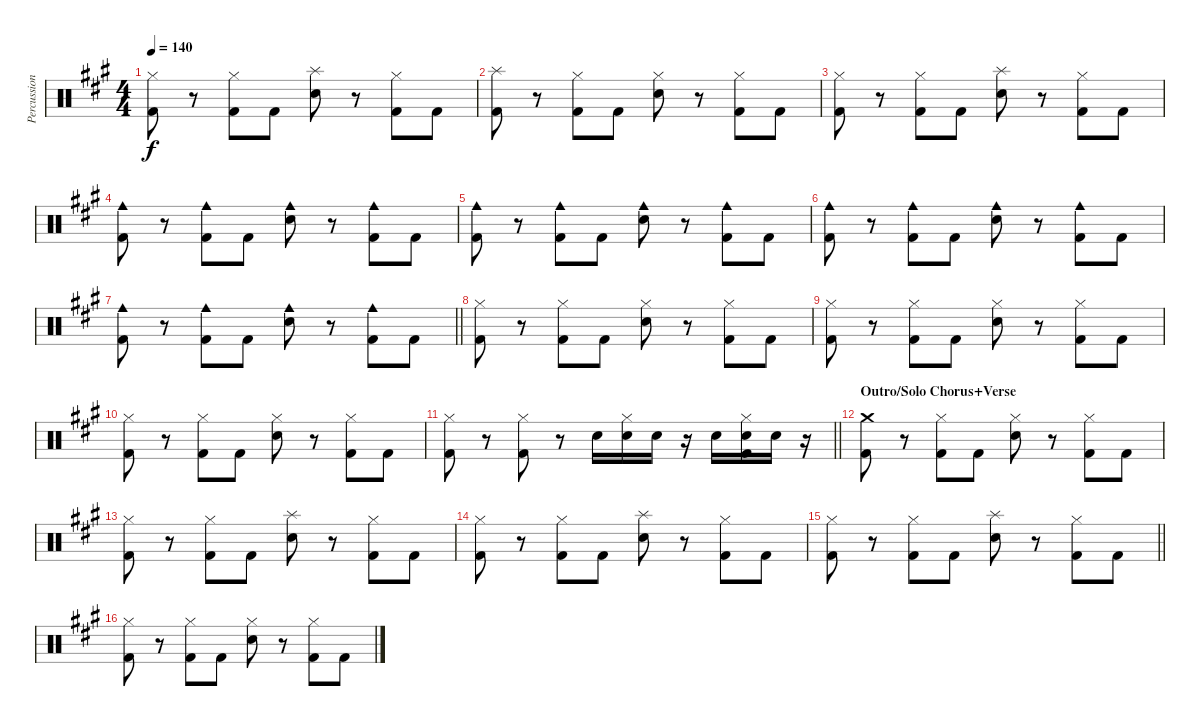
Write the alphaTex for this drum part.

\track ("Percussion" "Percussion") {instrument percussion}
\staff {score}
\articulation defaults
\ts (4 4)
\tempo 140
\clef neutral
\ks a
("Hi-Hat (closed)" "Kick (hit) 2").8{dy f} r.8 ("Hi-Hat (closed)" "Kick (hit) 2").8 "Kick (hit) 2".8 ("Splash (hit)" "Snare (hit) 2").8 r.8 ("Hi-Hat (closed)" "Kick (hit) 2").8 "Kick (hit) 2".8 |
("Splash (hit)" "Kick (hit) 2").8 r.8 ("Hi-Hat (closed)" "Kick (hit) 2").8 "Kick (hit) 2".8 ("Hi-Hat (closed)" "Snare (hit) 2").8 r.8 ("Hi-Hat (closed)" "Kick (hit) 2").8 "Kick (hit) 2".8 |
("Hi-Hat (closed)" "Kick (hit) 2").8 r.8 ("Hi-Hat (closed)" "Kick (hit) 2").8 "Kick (hit) 2".8 ("Splash (hit)" "Snare (hit) 2").8 r.8 ("Hi-Hat (closed)" "Kick (hit) 2").8 "Kick (hit) 2".8 |
("Cowbell medium (hit)" "Kick (hit) 2").8 r.8 ("Cowbell medium (hit)" "Kick (hit) 2").8 "Kick (hit) 2".8 ("Cowbell medium (hit)" "Snare (hit) 2").8 r.8 ("Cowbell medium (hit)" "Kick (hit) 2").8 "Kick (hit) 2".8 |
("Cowbell medium (hit)" "Kick (hit) 2").8 r.8 ("Cowbell medium (hit)" "Kick (hit) 2").8 "Kick (hit) 2".8 ("Cowbell medium (hit)" "Snare (hit) 2").8 r.8 ("Cowbell medium (hit)" "Kick (hit) 2").8 "Kick (hit) 2".8 |
("Cowbell medium (hit)" "Kick (hit) 2").8 r.8 ("Cowbell medium (hit)" "Kick (hit) 2").8 "Kick (hit) 2".8 ("Cowbell medium (hit)" "Snare (hit) 2").8 r.8 ("Cowbell medium (hit)" "Kick (hit) 2").8 "Kick (hit) 2".8 |
\barLineRight lightlight
("Cowbell medium (hit)" "Kick (hit) 2").8 r.8 ("Cowbell medium (hit)" "Kick (hit) 2").8 "Kick (hit) 2".8 ("Cowbell medium (hit)" "Snare (hit) 2").8 r.8 ("Cowbell medium (hit)" "Kick (hit) 2").8 "Kick (hit) 2".8 |
("Hi-Hat (closed)" "Kick (hit) 2").8 r.8 ("Hi-Hat (closed)" "Kick (hit) 2").8 "Kick (hit) 2".8 ("Hi-Hat (closed)" "Snare (hit) 2").8 r.8 ("Hi-Hat (closed)" "Kick (hit) 2").8 "Kick (hit) 2".8 |
("Hi-Hat (closed)" "Kick (hit) 2").8 r.8 ("Hi-Hat (closed)" "Kick (hit) 2").8 "Kick (hit) 2".8 ("Hi-Hat (closed)" "Snare (hit) 2").8 r.8 ("Hi-Hat (closed)" "Kick (hit) 2").8 "Kick (hit) 2".8 |
("Hi-Hat (closed)" "Kick (hit) 2").8 r.8 ("Hi-Hat (closed)" "Kick (hit) 2").8 "Kick (hit) 2".8 ("Hi-Hat (closed)" "Snare (hit) 2").8 r.8 ("Hi-Hat (closed)" "Kick (hit) 2").8 "Kick (hit) 2".8 |
\barLineRight lightlight
("Hi-Hat (closed)" "Kick (hit) 2").8 r.8 ("Hi-Hat (closed)" "Kick (hit) 2").8 r.8 "Snare (hit) 2".16 ("Hi-Hat (closed)" "Snare (hit) 2").16 "Snare (hit) 2".16 r.16 "Snare (hit) 2".16 ("Hi-Hat (closed)" "Snare (hit) 2" "Kick (hit) 2").16 "Snare (hit) 2".16 r.16 |
\section ("" "Outro/Solo Chorus+Verse")
("Crash medium (hit)" "Kick (hit) 2").8 r.8 ("Hi-Hat (closed)" "Kick (hit) 2").8 "Kick (hit) 2".8 ("Hi-Hat (closed)" "Snare (hit) 2").8 r.8 ("Hi-Hat (closed)" "Kick (hit) 2").8 "Kick (hit) 2".8 |
("Hi-Hat (closed)" "Kick (hit) 2").8 r.8 ("Hi-Hat (closed)" "Kick (hit) 2").8 "Kick (hit) 2".8 ("Splash (hit)" "Snare (hit) 2").8 r.8 ("Hi-Hat (closed)" "Kick (hit) 2").8 "Kick (hit) 2".8 |
("Hi-Hat (closed)" "Kick (hit) 2").8 r.8 ("Hi-Hat (closed)" "Kick (hit) 2").8 "Kick (hit) 2".8 ("Splash (hit)" "Snare (hit) 2").8 r.8 ("Hi-Hat (closed)" "Kick (hit) 2").8 "Kick (hit) 2".8 |
\barLineRight lightlight
("Hi-Hat (closed)" "Kick (hit) 2").8 r.8 ("Hi-Hat (closed)" "Kick (hit) 2").8 "Kick (hit) 2".8 ("Splash (hit)" "Snare (hit) 2").8 r.8 ("Hi-Hat (closed)" "Kick (hit) 2").8 "Kick (hit) 2".8 |
("Hi-Hat (closed)" "Kick (hit) 2").8 r.8 ("Hi-Hat (closed)" "Kick (hit) 2").8 "Kick (hit) 2".8 ("Hi-Hat (closed)" "Snare (hit) 2").8 r.8 ("Hi-Hat (closed)" "Kick (hit) 2").8 "Kick (hit) 2".8
